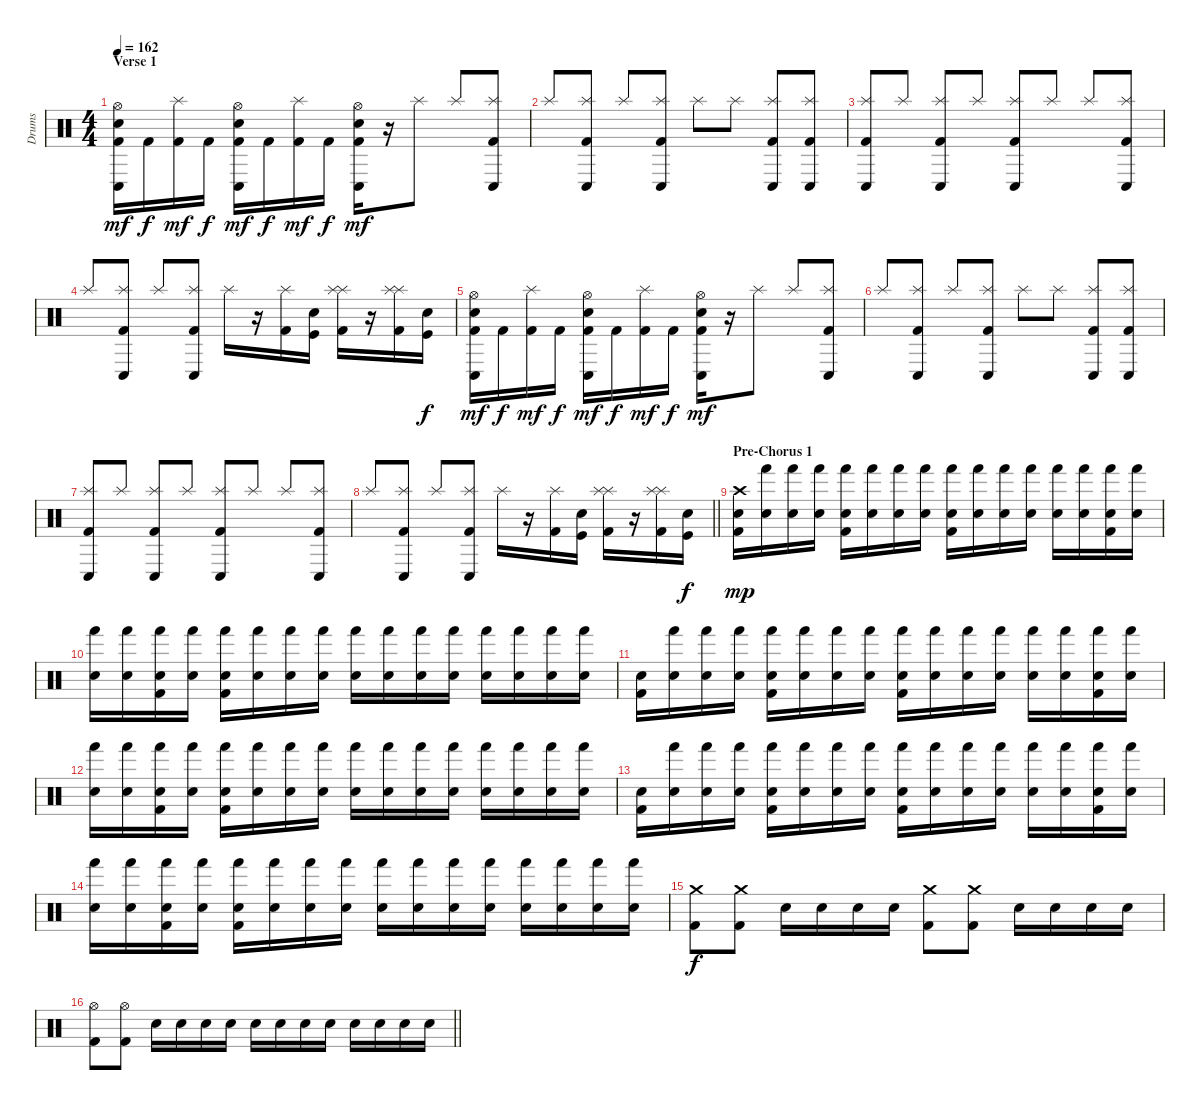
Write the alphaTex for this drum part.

\track ("Drums" "Drums") {instrument percussion}
\staff {score}
\articulation defaults
\ts (4 4)
\section ("" "Verse 1")
\tempo 162
\clef neutral
\ks c
("Hi-Hat (open)" "Snare (hit) 2" "Conga low (hit)" "Kick (hit) 2").16{dy mf} "Kick (hit) 2".16{dy f} ("Splash (hit)" "Kick (hit) 2").16{dy mf} "Kick (hit) 2".16{dy f} ("Hi-Hat (open)" "Snare (hit) 2" "Conga low (hit)" "Kick (hit) 2").16{dy mf} "Kick (hit) 2".16{dy f} ("Splash (hit)" "Kick (hit) 2").16{dy mf} "Kick (hit) 2".16{dy f} ("Hi-Hat (open)" "Snare (hit) 2" "Conga low (hit)" "Kick (hit) 2").16{dy mf} r.16 "Splash (hit)".8 "Splash (hit)".8 ("Splash (hit)" "Conga low (hit)" "Kick (hit) 2").8 |
"Splash (hit)".8 ("Splash (hit)" "Conga low (hit)" "Kick (hit) 2").8 "Splash (hit)".8 ("Splash (hit)" "Conga low (hit)" "Kick (hit) 2").8 "Splash (hit)".8 "Splash (hit)".8 ("Splash (hit)" "Conga low (hit)" "Kick (hit) 2").8 ("Splash (hit)" "Conga low (hit)" "Kick (hit) 2").8 |
("Splash (hit)" "Conga low (hit)" "Kick (hit) 2").8 "Splash (hit)".8 ("Splash (hit)" "Conga low (hit)" "Kick (hit) 2").8 "Splash (hit)".8 ("Splash (hit)" "Conga low (hit)" "Kick (hit) 2").8 "Splash (hit)".8 "Splash (hit)".8 ("Splash (hit)" "Conga low (hit)" "Kick (hit) 2").8 |
"Splash (hit)".8 ("Splash (hit)" "Conga low (hit)" "Kick (hit) 2").8 "Splash (hit)".8 ("Splash (hit)" "Conga low (hit)" "Kick (hit) 2").8 "Splash (hit)".16 r.16 ("Kick (hit) 2" "Splash (hit)").16 ("Kick (hit)" "Electric Snare (hit)").16 ("Kick (hit) 2" "Splash (hit)" "Splash (hit)").16 r.16 ("Kick (hit) 2" "Splash (hit)" "Splash (hit)").16 ("Kick (hit)" "Electric Snare (hit)").16{dy f} |
("Hi-Hat (open)" "Snare (hit) 2" "Conga low (hit)" "Kick (hit) 2").16{dy mf} "Kick (hit) 2".16{dy f} ("Splash (hit)" "Kick (hit) 2").16{dy mf} "Kick (hit) 2".16{dy f} ("Hi-Hat (open)" "Snare (hit) 2" "Conga low (hit)" "Kick (hit) 2").16{dy mf} "Kick (hit) 2".16{dy f} ("Splash (hit)" "Kick (hit) 2").16{dy mf} "Kick (hit) 2".16{dy f} ("Hi-Hat (open)" "Snare (hit) 2" "Conga low (hit)" "Kick (hit) 2").16{dy mf} r.16 "Splash (hit)".8 "Splash (hit)".8 ("Splash (hit)" "Conga low (hit)" "Kick (hit) 2").8 |
"Splash (hit)".8 ("Splash (hit)" "Conga low (hit)" "Kick (hit) 2").8 "Splash (hit)".8 ("Splash (hit)" "Conga low (hit)" "Kick (hit) 2").8 "Splash (hit)".8 "Splash (hit)".8 ("Splash (hit)" "Conga low (hit)" "Kick (hit) 2").8 ("Splash (hit)" "Conga low (hit)" "Kick (hit) 2").8 |
("Splash (hit)" "Conga low (hit)" "Kick (hit) 2").8 "Splash (hit)".8 ("Splash (hit)" "Conga low (hit)" "Kick (hit) 2").8 "Splash (hit)".8 ("Splash (hit)" "Conga low (hit)" "Kick (hit) 2").8 "Splash (hit)".8 "Splash (hit)".8 ("Splash (hit)" "Conga low (hit)" "Kick (hit) 2").8 |
\barLineRight lightlight "Splash (hit)".8
("Splash (hit)" "Conga low (hit)" "Kick (hit) 2").8 "Splash (hit)".8 ("Splash (hit)" "Conga low (hit)" "Kick (hit) 2").8 "Splash (hit)".16 r.16 ("Kick (hit) 2" "Splash (hit)").16 ("Kick (hit)" "Electric Snare (hit)").16 ("Kick (hit) 2" "Splash (hit)" "Splash (hit)").16 r.16 ("Kick (hit) 2" "Splash (hit)" "Splash (hit)").16 ("Kick (hit)" "Electric Snare (hit)").16{dy f} |
\section ("" "Pre-Chorus 1")
("Crash high (hit)" "Electric Snare (hit)" "Kick (hit) 2").16{dy mp} ("Hand (hit)" "Electric Snare (hit)").16 ("Hand (hit)" "Electric Snare (hit)").16 ("Hand (hit)" "Electric Snare (hit)").16 ("Hand (hit)" "Electric Snare (hit)" "Kick (hit) 2").16 ("Hand (hit)" "Electric Snare (hit)").16 ("Hand (hit)" "Electric Snare (hit)").16 ("Hand (hit)" "Electric Snare (hit)").16 ("Hand (hit)" "Electric Snare (hit)" "Kick (hit) 2").16 ("Hand (hit)" "Electric Snare (hit)").16 ("Hand (hit)" "Electric Snare (hit)").16 ("Hand (hit)" "Electric Snare (hit)").16 ("Hand (hit)" "Electric Snare (hit)").16 ("Hand (hit)" "Electric Snare (hit)").16 ("Hand (hit)" "Electric Snare (hit)" "Kick (hit) 2").16 ("Hand (hit)" "Electric Snare (hit)").16 |
("Hand (hit)" "Electric Snare (hit)").16 ("Hand (hit)" "Electric Snare (hit)").16 ("Hand (hit)" "Electric Snare (hit)" "Kick (hit) 2").16 ("Hand (hit)" "Electric Snare (hit)").16 ("Hand (hit)" "Electric Snare (hit)" "Kick (hit) 2").16 ("Hand (hit)" "Electric Snare (hit)").16 ("Hand (hit)" "Electric Snare (hit)").16 ("Hand (hit)" "Electric Snare (hit)").16 ("Hand (hit)" "Electric Snare (hit)").16 ("Hand (hit)" "Electric Snare (hit)").16 ("Hand (hit)" "Electric Snare (hit)").16 ("Hand (hit)" "Electric Snare (hit)").16 ("Hand (hit)" "Electric Snare (hit)").16 ("Hand (hit)" "Electric Snare (hit)").16 ("Hand (hit)" "Electric Snare (hit)").16 ("Hand (hit)" "Electric Snare (hit)").16 |
("Electric Snare (hit)" "Kick (hit) 2").16 ("Hand (hit)" "Electric Snare (hit)").16 ("Hand (hit)" "Electric Snare (hit)").16 ("Hand (hit)" "Electric Snare (hit)").16 ("Hand (hit)" "Electric Snare (hit)" "Kick (hit) 2").16 ("Hand (hit)" "Electric Snare (hit)").16 ("Hand (hit)" "Electric Snare (hit)").16 ("Hand (hit)" "Electric Snare (hit)").16 ("Hand (hit)" "Electric Snare (hit)" "Kick (hit) 2").16 ("Hand (hit)" "Electric Snare (hit)").16 ("Hand (hit)" "Electric Snare (hit)").16 ("Hand (hit)" "Electric Snare (hit)").16 ("Hand (hit)" "Electric Snare (hit)").16 ("Hand (hit)" "Electric Snare (hit)").16 ("Hand (hit)" "Electric Snare (hit)" "Kick (hit) 2").16 ("Hand (hit)" "Electric Snare (hit)").16 |
("Hand (hit)" "Electric Snare (hit)").16 ("Hand (hit)" "Electric Snare (hit)").16 ("Hand (hit)" "Electric Snare (hit)" "Kick (hit) 2").16 ("Hand (hit)" "Electric Snare (hit)").16 ("Hand (hit)" "Electric Snare (hit)" "Kick (hit) 2").16 ("Hand (hit)" "Electric Snare (hit)").16 ("Hand (hit)" "Electric Snare (hit)").16 ("Hand (hit)" "Electric Snare (hit)").16 ("Hand (hit)" "Electric Snare (hit)").16 ("Hand (hit)" "Electric Snare (hit)").16 ("Hand (hit)" "Electric Snare (hit)").16 ("Hand (hit)" "Electric Snare (hit)").16 ("Hand (hit)" "Electric Snare (hit)").16 ("Hand (hit)" "Electric Snare (hit)").16 ("Hand (hit)" "Electric Snare (hit)").16 ("Hand (hit)" "Electric Snare (hit)").16 |
("Electric Snare (hit)" "Kick (hit) 2").16 ("Hand (hit)" "Electric Snare (hit)").16 ("Hand (hit)" "Electric Snare (hit)").16 ("Hand (hit)" "Electric Snare (hit)").16 ("Hand (hit)" "Electric Snare (hit)" "Kick (hit) 2").16 ("Hand (hit)" "Electric Snare (hit)").16 ("Hand (hit)" "Electric Snare (hit)").16 ("Hand (hit)" "Electric Snare (hit)").16 ("Hand (hit)" "Electric Snare (hit)" "Kick (hit) 2").16 ("Hand (hit)" "Electric Snare (hit)").16 ("Hand (hit)" "Electric Snare (hit)").16 ("Hand (hit)" "Electric Snare (hit)").16 ("Hand (hit)" "Electric Snare (hit)").16 ("Hand (hit)" "Electric Snare (hit)").16 ("Hand (hit)" "Electric Snare (hit)" "Kick (hit) 2").16 ("Hand (hit)" "Electric Snare (hit)").16 |
("Hand (hit)" "Electric Snare (hit)").16 ("Hand (hit)" "Electric Snare (hit)").16 ("Hand (hit)" "Electric Snare (hit)" "Kick (hit) 2").16 ("Hand (hit)" "Electric Snare (hit)").16 ("Hand (hit)" "Electric Snare (hit)" "Kick (hit) 2").16 ("Hand (hit)" "Electric Snare (hit)").16 ("Hand (hit)" "Electric Snare (hit)").16 ("Hand (hit)" "Electric Snare (hit)").16 ("Hand (hit)" "Electric Snare (hit)").16 ("Hand (hit)" "Electric Snare (hit)").16 ("Hand (hit)" "Electric Snare (hit)").16 ("Hand (hit)" "Electric Snare (hit)").16 ("Hand (hit)" "Electric Snare (hit)").16 ("Hand (hit)" "Electric Snare (hit)").16 ("Hand (hit)" "Electric Snare (hit)").16 ("Hand (hit)" "Electric Snare (hit)").16 |
("Crash medium (hit)" "Kick (hit) 2").8{dy f} ("Crash medium (hit)" "Kick (hit) 2").8 "Electric Snare (hit)".16 "Electric Snare (hit)".16 "Electric Snare (hit)".16 "Electric Snare (hit)".16 ("Crash medium (hit)" "Kick (hit) 2").8 ("Crash medium (hit)" "Kick (hit) 2").8 "Electric Snare (hit)".16 "Electric Snare (hit)".16 "Electric Snare (hit)".16 "Electric Snare (hit)".16 |
\barLineRight lightlight
("Hi-Hat (open)" "Kick (hit) 2").8 ("Hi-Hat (open)" "Kick (hit) 2").8 "Electric Snare (hit)".16 "Electric Snare (hit)".16 "Electric Snare (hit)".16 "Electric Snare (hit)".16 "Electric Snare (hit)".16 "Electric Snare (hit)".16 "Electric Snare (hit)".16 "Electric Snare (hit)".16 "Electric Snare (hit)".16 "Electric Snare (hit)".16 "Electric Snare (hit)".16 "Electric Snare (hit)".16
